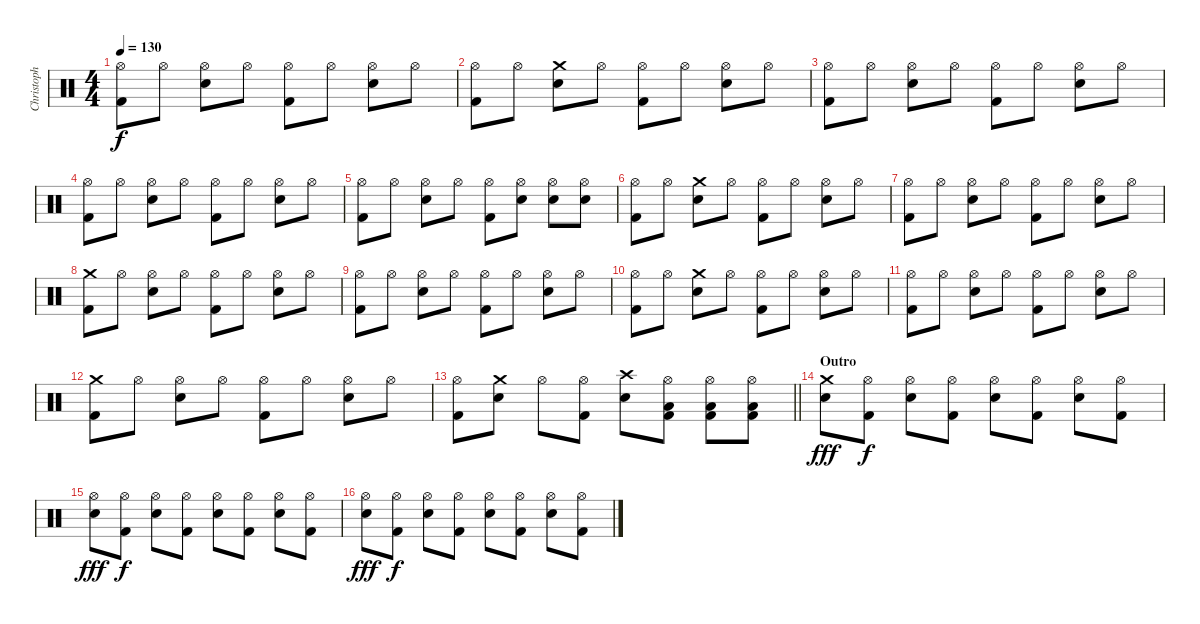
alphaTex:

\track ("Christoph \"Doom\" Schneider" "Christoph ") {instrument percussion}
\staff {score}
\articulation defaults
\ts (4 4)
\tempo 130
\clef neutral
\ks c
("Hi-Hat (open)" "Kick (hit) 2").8{dy f} "Hi-Hat (open)".8 ("Hi-Hat (open)" "Electric Snare (hit)").8 "Hi-Hat (open)".8 ("Hi-Hat (open)" "Kick (hit) 2").8 "Hi-Hat (open)".8 ("Hi-Hat (open)" "Electric Snare (hit)").8 "Hi-Hat (open)".8 |
("Hi-Hat (open)" "Kick (hit) 2").8 "Hi-Hat (open)".8 ("Crash medium (hit)" "Electric Snare (hit)").8 "Hi-Hat (open)".8 ("Hi-Hat (open)" "Kick (hit) 2").8 "Hi-Hat (open)".8 ("Hi-Hat (open)" "Electric Snare (hit)").8 "Hi-Hat (open)".8 |
("Hi-Hat (open)" "Kick (hit) 2").8 "Hi-Hat (open)".8 ("Hi-Hat (open)" "Electric Snare (hit)").8 "Hi-Hat (open)".8 ("Hi-Hat (open)" "Kick (hit) 2").8 "Hi-Hat (open)".8 ("Hi-Hat (open)" "Electric Snare (hit)").8 "Hi-Hat (open)".8 |
("Hi-Hat (open)" "Kick (hit) 2").8 "Hi-Hat (open)".8 ("Hi-Hat (open)" "Electric Snare (hit)").8 "Hi-Hat (open)".8 ("Hi-Hat (open)" "Kick (hit) 2").8 "Hi-Hat (open)".8 ("Hi-Hat (open)" "Electric Snare (hit)").8 "Hi-Hat (open)".8 |
("Hi-Hat (open)" "Kick (hit) 2").8 "Hi-Hat (open)".8 ("Hi-Hat (open)" "Electric Snare (hit)").8 "Hi-Hat (open)".8 ("Hi-Hat (open)" "Kick (hit) 2").8 ("Hi-Hat (open)" "Electric Snare (hit)").8 ("Hi-Hat (open)" "Electric Snare (hit)").8 ("Hi-Hat (open)" "Electric Snare (hit)").8 |
("Hi-Hat (open)" "Kick (hit) 2").8 "Hi-Hat (open)".8 ("Crash medium (hit)" "Electric Snare (hit)").8 "Hi-Hat (open)".8 ("Hi-Hat (open)" "Kick (hit) 2").8 "Hi-Hat (open)".8 ("Hi-Hat (open)" "Electric Snare (hit)").8 "Hi-Hat (open)".8 |
("Hi-Hat (open)" "Kick (hit) 2").8 "Hi-Hat (open)".8 ("Hi-Hat (open)" "Electric Snare (hit)").8 "Hi-Hat (open)".8 ("Hi-Hat (open)" "Kick (hit) 2").8 "Hi-Hat (open)".8 ("Hi-Hat (open)" "Electric Snare (hit)").8 "Hi-Hat (open)".8 |
("Crash medium (hit)" "Kick (hit) 2").8 "Hi-Hat (open)".8 ("Hi-Hat (open)" "Electric Snare (hit)").8 "Hi-Hat (open)".8 ("Hi-Hat (open)" "Kick (hit) 2").8 "Hi-Hat (open)".8 ("Hi-Hat (open)" "Electric Snare (hit)").8 "Hi-Hat (open)".8 |
("Hi-Hat (open)" "Kick (hit) 2").8 "Hi-Hat (open)".8 ("Hi-Hat (open)" "Electric Snare (hit)").8 "Hi-Hat (open)".8 ("Hi-Hat (open)" "Kick (hit) 2").8 "Hi-Hat (open)".8 ("Hi-Hat (open)" "Electric Snare (hit)").8 "Hi-Hat (open)".8 |
("Hi-Hat (open)" "Kick (hit) 2").8 "Hi-Hat (open)".8 ("Crash medium (hit)" "Electric Snare (hit)").8 "Hi-Hat (open)".8 ("Hi-Hat (open)" "Kick (hit) 2").8 "Hi-Hat (open)".8 ("Hi-Hat (open)" "Electric Snare (hit)").8 "Hi-Hat (open)".8 |
("Hi-Hat (open)" "Kick (hit) 2").8 "Hi-Hat (open)".8 ("Hi-Hat (open)" "Electric Snare (hit)").8 "Hi-Hat (open)".8 ("Hi-Hat (open)" "Kick (hit) 2").8 "Hi-Hat (open)".8 ("Hi-Hat (open)" "Electric Snare (hit)").8 "Hi-Hat (open)".8 |
("Crash medium (hit)" "Kick (hit) 2").8 "Hi-Hat (open)".8 ("Hi-Hat (open)" "Electric Snare (hit)").8 "Hi-Hat (open)".8 ("Hi-Hat (open)" "Kick (hit) 2").8 "Hi-Hat (open)".8 ("Hi-Hat (open)" "Electric Snare (hit)").8 "Hi-Hat (open)".8 |
\barLineRight lightlight
("Hi-Hat (open)" "Kick (hit) 2").8 ("Crash medium (hit)" "Electric Snare (hit)").8 "Hi-Hat (open)".8 ("Hi-Hat (open)" "Kick (hit) 2").8 ("Crash high (hit)" "Electric Snare (hit)").8 ("Hi-Hat (open)" "Low Floor Tom (hit)" "Kick (hit) 2").8 ("Hi-Hat (open)" "Low Floor Tom (hit)" "Kick (hit) 2").8 ("Hi-Hat (open)" "Low Floor Tom (hit)" "Kick (hit) 2").8 |
\section ("" "Outro")
("Crash medium (hit)" "Electric Snare (hit)").8{dy fff} ("Hi-Hat (open)" "Kick (hit) 2").8{dy f} ("Hi-Hat (open)" "Electric Snare (hit)").8 ("Hi-Hat (open)" "Kick (hit) 2").8 ("Hi-Hat (open)" "Electric Snare (hit)").8 ("Hi-Hat (open)" "Kick (hit) 2").8 ("Hi-Hat (open)" "Electric Snare (hit)").8 ("Hi-Hat (open)" "Kick (hit) 2").8 |
("Hi-Hat (open)" "Electric Snare (hit)").8{dy fff} ("Hi-Hat (open)" "Kick (hit) 2").8{dy f} ("Hi-Hat (open)" "Electric Snare (hit)").8 ("Hi-Hat (open)" "Kick (hit) 2").8 ("Hi-Hat (open)" "Electric Snare (hit)").8 ("Hi-Hat (open)" "Kick (hit) 2").8 ("Hi-Hat (open)" "Electric Snare (hit)").8 ("Hi-Hat (open)" "Kick (hit) 2").8 |
("Hi-Hat (open)" "Electric Snare (hit)").8{dy fff} ("Hi-Hat (open)" "Kick (hit) 2").8{dy f} ("Hi-Hat (open)" "Electric Snare (hit)").8 ("Hi-Hat (open)" "Kick (hit) 2").8 ("Hi-Hat (open)" "Electric Snare (hit)").8 ("Hi-Hat (open)" "Kick (hit) 2").8 ("Hi-Hat (open)" "Electric Snare (hit)").8 ("Hi-Hat (open)" "Kick (hit) 2").8
